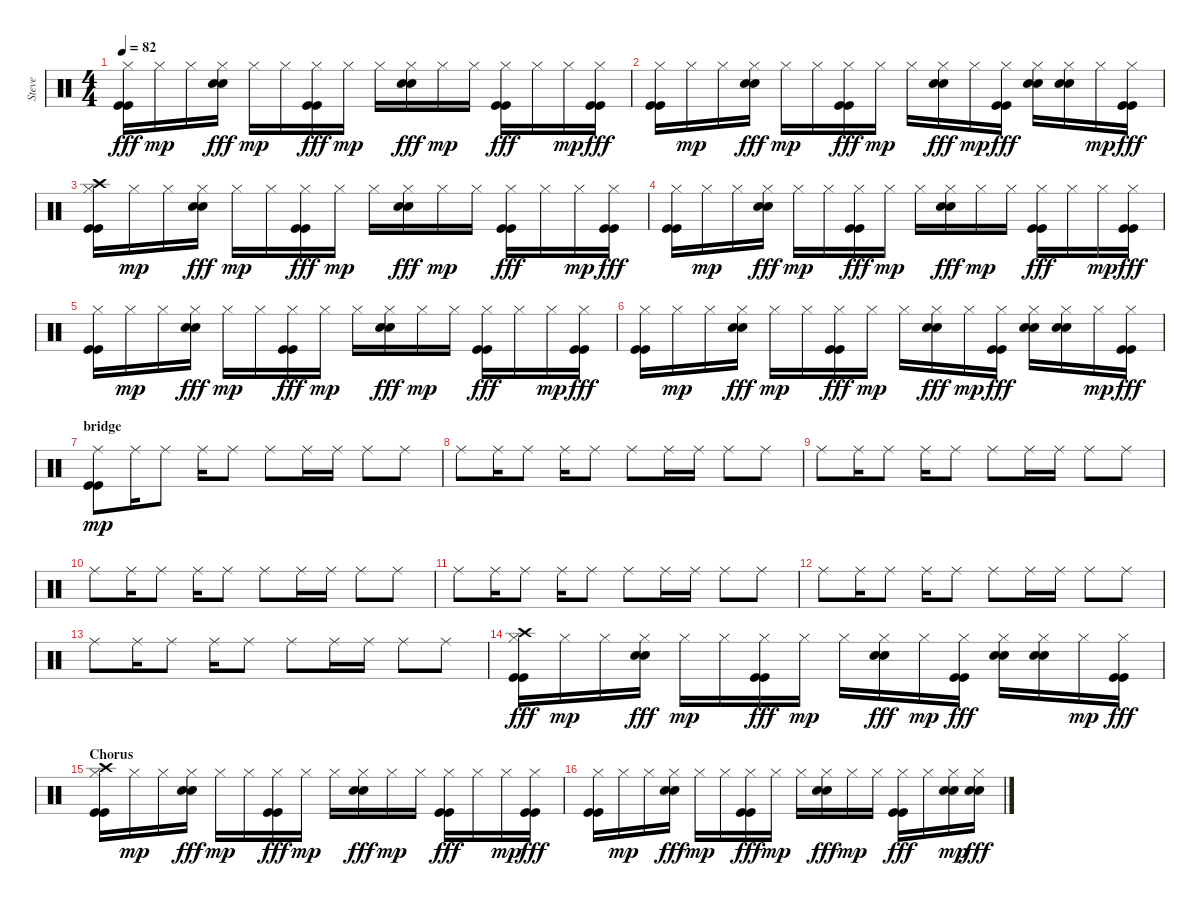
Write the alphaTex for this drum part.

\track ("Steve" "Steve") {instrument percussion}
\staff {score}
\articulation defaults
\ts (4 4)
\tempo 82
\clef neutral
\ks c
("Hi-Hat (closed)" "Kick (hit)" "Kick (hit)").16{dy fff} "Hi-Hat (closed)".16{dy mp} "Hi-Hat (closed)".16 ("Hi-Hat (closed)" "Snare (hit) 2" "Snare (hit) 2").16{dy fff} "Hi-Hat (closed)".16{dy mp} "Hi-Hat (closed)".16 ("Hi-Hat (closed)" "Kick (hit)" "Kick (hit)").16{dy fff} "Hi-Hat (closed)".16{dy mp} "Hi-Hat (closed)".16 ("Hi-Hat (closed)" "Snare (hit) 2" "Snare (hit) 2").16{dy fff} "Hi-Hat (closed)".16{dy mp} "Hi-Hat (closed)".16 ("Hi-Hat (closed)" "Kick (hit)" "Kick (hit)").16{dy fff} "Hi-Hat (closed)".16 "Hi-Hat (closed)".16{dy mp} ("Hi-Hat (closed)" "Kick (hit)" "Kick (hit)").16{dy fff} |
("Hi-Hat (closed)" "Kick (hit)" "Kick (hit)").16 "Hi-Hat (closed)".16{dy mp} "Hi-Hat (closed)".16 ("Hi-Hat (closed)" "Snare (hit) 2" "Snare (hit) 2").16{dy fff} "Hi-Hat (closed)".16{dy mp} "Hi-Hat (closed)".16 ("Hi-Hat (closed)" "Kick (hit)" "Kick (hit)").16{dy fff} "Hi-Hat (closed)".16{dy mp} "Hi-Hat (closed)".16 ("Hi-Hat (closed)" "Snare (hit) 2" "Snare (hit) 2").16{dy fff} "Hi-Hat (closed)".16{dy mp} ("Hi-Hat (closed)" "Kick (hit)" "Kick (hit)").16{dy fff} ("Hi-Hat (closed)" "Snare (hit) 2" "Snare (hit) 2").16 ("Hi-Hat (closed)" "Snare (hit) 2" "Snare (hit) 2").16 "Hi-Hat (closed)".16{dy mp} ("Hi-Hat (closed)" "Kick (hit)" "Kick (hit)").16{dy fff} |
("Crash high (hit)" "Hi-Hat (closed)" "Kick (hit)" "Kick (hit)").16 "Hi-Hat (closed)".16{dy mp} "Hi-Hat (closed)".16 ("Hi-Hat (closed)" "Snare (hit) 2" "Snare (hit) 2").16{dy fff} "Hi-Hat (closed)".16{dy mp} "Hi-Hat (closed)".16 ("Hi-Hat (closed)" "Kick (hit)" "Kick (hit)").16{dy fff} "Hi-Hat (closed)".16{dy mp} "Hi-Hat (closed)".16 ("Hi-Hat (closed)" "Snare (hit) 2" "Snare (hit) 2").16{dy fff} "Hi-Hat (closed)".16{dy mp} "Hi-Hat (closed)".16 ("Hi-Hat (closed)" "Kick (hit)" "Kick (hit)").16{dy fff} "Hi-Hat (closed)".16 "Hi-Hat (closed)".16{dy mp} ("Hi-Hat (closed)" "Kick (hit)" "Kick (hit)").16{dy fff} |
("Hi-Hat (closed)" "Kick (hit)" "Kick (hit)").16 "Hi-Hat (closed)".16{dy mp} "Hi-Hat (closed)".16 ("Hi-Hat (closed)" "Snare (hit) 2" "Snare (hit) 2").16{dy fff} "Hi-Hat (closed)".16{dy mp} "Hi-Hat (closed)".16 ("Hi-Hat (closed)" "Kick (hit)" "Kick (hit)").16{dy fff} "Hi-Hat (closed)".16{dy mp} "Hi-Hat (closed)".16 ("Hi-Hat (closed)" "Snare (hit) 2" "Snare (hit) 2").16{dy fff} "Hi-Hat (closed)".16{dy mp} "Hi-Hat (closed)".16 ("Hi-Hat (closed)" "Kick (hit)" "Kick (hit)").16{dy fff} "Hi-Hat (closed)".16 "Hi-Hat (closed)".16{dy mp} ("Hi-Hat (closed)" "Kick (hit)" "Kick (hit)").16{dy fff} |
("Hi-Hat (closed)" "Kick (hit)" "Kick (hit)").16 "Hi-Hat (closed)".16{dy mp} "Hi-Hat (closed)".16 ("Hi-Hat (closed)" "Snare (hit) 2" "Snare (hit) 2").16{dy fff} "Hi-Hat (closed)".16{dy mp} "Hi-Hat (closed)".16 ("Hi-Hat (closed)" "Kick (hit)" "Kick (hit)").16{dy fff} "Hi-Hat (closed)".16{dy mp} "Hi-Hat (closed)".16 ("Hi-Hat (closed)" "Snare (hit) 2" "Snare (hit) 2").16{dy fff} "Hi-Hat (closed)".16{dy mp} "Hi-Hat (closed)".16 ("Hi-Hat (closed)" "Kick (hit)" "Kick (hit)").16{dy fff} "Hi-Hat (closed)".16 "Hi-Hat (closed)".16{dy mp} ("Hi-Hat (closed)" "Kick (hit)" "Kick (hit)").16{dy fff} |
("Hi-Hat (closed)" "Kick (hit)" "Kick (hit)").16 "Hi-Hat (closed)".16{dy mp} "Hi-Hat (closed)".16 ("Hi-Hat (closed)" "Snare (hit) 2" "Snare (hit) 2").16{dy fff} "Hi-Hat (closed)".16{dy mp} "Hi-Hat (closed)".16 ("Hi-Hat (closed)" "Kick (hit)" "Kick (hit)").16{dy fff} "Hi-Hat (closed)".16{dy mp} "Hi-Hat (closed)".16 ("Hi-Hat (closed)" "Snare (hit) 2" "Snare (hit) 2").16{dy fff} "Hi-Hat (closed)".16{dy mp} ("Hi-Hat (closed)" "Kick (hit)" "Kick (hit)").16{dy fff} ("Hi-Hat (closed)" "Snare (hit) 2" "Snare (hit) 2").16 ("Hi-Hat (closed)" "Snare (hit) 2" "Snare (hit) 2").16 "Hi-Hat (closed)".16{dy mp} ("Hi-Hat (closed)" "Kick (hit)" "Kick (hit)").16{dy fff} |
\section ("" "bridge")
("Ride (middle)" "Kick (hit)" "Kick (hit)").8{dy mp} "Ride (middle)".16 "Ride (middle)".8 "Ride (middle)".16 "Ride (middle)".8 "Ride (middle)".8 "Ride (middle)".16 "Ride (middle)".16 "Ride (middle)".8 "Ride (middle)".8 |
"Ride (middle)".8 "Ride (middle)".16 "Ride (middle)".8 "Ride (middle)".16 "Ride (middle)".8 "Ride (middle)".8 "Ride (middle)".16 "Ride (middle)".16 "Ride (middle)".8 "Ride (middle)".8 |
"Ride (middle)".8 "Ride (middle)".16 "Ride (middle)".8 "Ride (middle)".16 "Ride (middle)".8 "Ride (middle)".8 "Ride (middle)".16 "Ride (middle)".16 "Ride (middle)".8 "Ride (middle)".8 |
"Ride (middle)".8 "Ride (middle)".16 "Ride (middle)".8 "Ride (middle)".16 "Ride (middle)".8 "Ride (middle)".8 "Ride (middle)".16 "Ride (middle)".16 "Ride (middle)".8 "Ride (middle)".8 |
"Ride (middle)".8 "Ride (middle)".16 "Ride (middle)".8 "Ride (middle)".16 "Ride (middle)".8 "Ride (middle)".8 "Ride (middle)".16 "Ride (middle)".16 "Ride (middle)".8 "Ride (middle)".8 |
"Ride (middle)".8 "Ride (middle)".16 "Ride (middle)".8 "Ride (middle)".16 "Ride (middle)".8 "Ride (middle)".8 "Ride (middle)".16 "Ride (middle)".16 "Ride (middle)".8 "Ride (middle)".8 |
"Ride (middle)".8 "Ride (middle)".16 "Ride (middle)".8 "Ride (middle)".16 "Ride (middle)".8 "Ride (middle)".8 "Ride (middle)".16 "Ride (middle)".16 "Ride (middle)".8 "Ride (middle)".8 |
("Crash high (hit)" "Hi-Hat (closed)" "Kick (hit)" "Kick (hit)").16{dy fff} "Hi-Hat (closed)".16{dy mp} "Hi-Hat (closed)".16 ("Hi-Hat (closed)" "Snare (hit) 2" "Snare (hit) 2").16{dy fff} "Hi-Hat (closed)".16{dy mp} "Hi-Hat (closed)".16 ("Hi-Hat (closed)" "Kick (hit)" "Kick (hit)").16{dy fff} "Hi-Hat (closed)".16{dy mp} "Hi-Hat (closed)".16 ("Hi-Hat (closed)" "Snare (hit) 2" "Snare (hit) 2").16{dy fff} "Hi-Hat (closed)".16{dy mp} ("Hi-Hat (closed)" "Kick (hit)" "Kick (hit)").16{dy fff} ("Hi-Hat (closed)" "Snare (hit) 2" "Snare (hit) 2").16 ("Hi-Hat (closed)" "Snare (hit) 2" "Snare (hit) 2").16 "Hi-Hat (closed)".16{dy mp} ("Hi-Hat (closed)" "Kick (hit)" "Kick (hit)").16{dy fff} |
\section ("" "Chorus")
("Crash high (hit)" "Hi-Hat (closed)" "Kick (hit)" "Kick (hit)").16 "Hi-Hat (closed)".16{dy mp} "Hi-Hat (closed)".16 ("Hi-Hat (closed)" "Snare (hit) 2" "Snare (hit) 2").16{dy fff} "Hi-Hat (closed)".16{dy mp} "Hi-Hat (closed)".16 ("Hi-Hat (closed)" "Kick (hit)" "Kick (hit)").16{dy fff} "Hi-Hat (closed)".16{dy mp} "Hi-Hat (closed)".16 ("Hi-Hat (closed)" "Snare (hit) 2" "Snare (hit) 2").16{dy fff} "Hi-Hat (closed)".16{dy mp} "Hi-Hat (closed)".16 ("Hi-Hat (closed)" "Kick (hit)" "Kick (hit)").16{dy fff} "Hi-Hat (closed)".16 "Hi-Hat (closed)".16{dy mp} ("Hi-Hat (closed)" "Kick (hit)" "Kick (hit)").16{dy fff} |
("Hi-Hat (closed)" "Kick (hit)" "Kick (hit)").16 "Hi-Hat (closed)".16{dy mp} "Hi-Hat (closed)".16 ("Hi-Hat (closed)" "Snare (hit) 2" "Snare (hit) 2").16{dy fff} "Hi-Hat (closed)".16{dy mp} "Hi-Hat (closed)".16 ("Hi-Hat (closed)" "Kick (hit)" "Kick (hit)").16{dy fff} "Hi-Hat (closed)".16{dy mp} "Hi-Hat (closed)".16 ("Hi-Hat (closed)" "Snare (hit) 2" "Snare (hit) 2").16{dy fff} "Hi-Hat (closed)".16{dy mp} "Hi-Hat (closed)".16 ("Hi-Hat (closed)" "Kick (hit)" "Kick (hit)").16{dy fff} "Hi-Hat (closed)".16 ("Hi-Hat (closed)" "Snare (hit) 2" "Snare (hit) 2").16{dy mp} ("Hi-Hat (closed)" "Snare (hit) 2" "Snare (hit) 2").16{dy fff}
